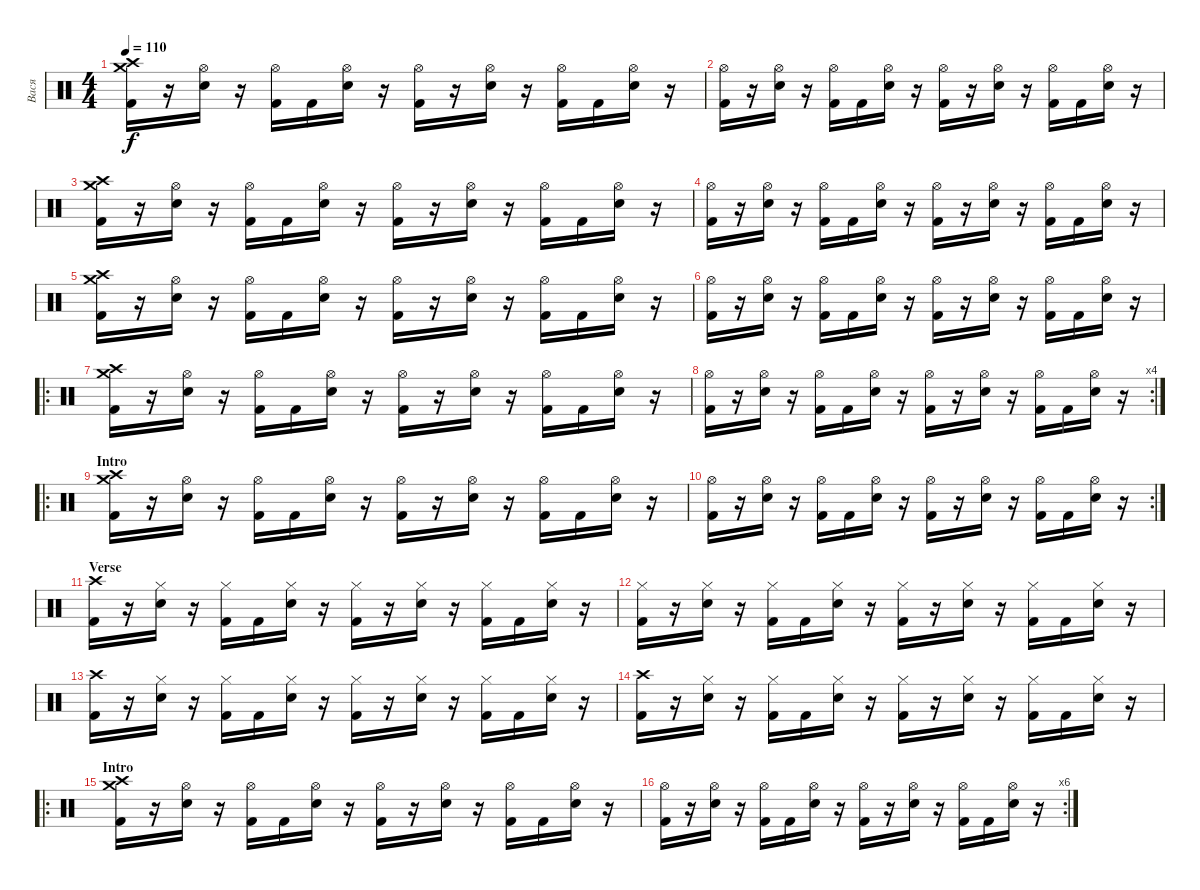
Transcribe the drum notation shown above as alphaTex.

\track ("Вася" "Вася") {instrument percussion}
\staff {score}
\articulation defaults
\ts (4 4)
\tempo 110
\clef neutral
\ks c
("Crash medium (hit)" "Crash high (hit)" "Kick (hit) 2").16{dy f} r.16 ("Hi-Hat (open)" "Electric Snare (hit)").16 r.16 ("Hi-Hat (open)" "Kick (hit) 2").16 "Kick (hit) 2".16 ("Hi-Hat (open)" "Electric Snare (hit)").16 r.16 ("Hi-Hat (open)" "Kick (hit) 2").16 r.16 ("Hi-Hat (open)" "Electric Snare (hit)").16 r.16 ("Hi-Hat (open)" "Kick (hit) 2").16 "Kick (hit) 2".16 ("Hi-Hat (open)" "Electric Snare (hit)").16 r.16 |
("Hi-Hat (open)" "Kick (hit) 2").16 r.16 ("Hi-Hat (open)" "Electric Snare (hit)").16 r.16 ("Hi-Hat (open)" "Kick (hit) 2").16 "Kick (hit) 2".16 ("Hi-Hat (open)" "Electric Snare (hit)").16 r.16 ("Hi-Hat (open)" "Kick (hit) 2").16 r.16 ("Hi-Hat (open)" "Electric Snare (hit)").16 r.16 ("Hi-Hat (open)" "Kick (hit) 2").16 "Kick (hit) 2".16 ("Hi-Hat (open)" "Electric Snare (hit)").16 r.16 |
("Crash medium (hit)" "Crash high (hit)" "Kick (hit) 2").16 r.16 ("Hi-Hat (open)" "Electric Snare (hit)").16 r.16 ("Hi-Hat (open)" "Kick (hit) 2").16 "Kick (hit) 2".16 ("Hi-Hat (open)" "Electric Snare (hit)").16 r.16 ("Hi-Hat (open)" "Kick (hit) 2").16 r.16 ("Hi-Hat (open)" "Electric Snare (hit)").16 r.16 ("Hi-Hat (open)" "Kick (hit) 2").16 "Kick (hit) 2".16 ("Hi-Hat (open)" "Electric Snare (hit)").16 r.16 |
("Hi-Hat (open)" "Kick (hit) 2").16 r.16 ("Hi-Hat (open)" "Electric Snare (hit)").16 r.16 ("Hi-Hat (open)" "Kick (hit) 2").16 "Kick (hit) 2".16 ("Hi-Hat (open)" "Electric Snare (hit)").16 r.16 ("Hi-Hat (open)" "Kick (hit) 2").16 r.16 ("Hi-Hat (open)" "Electric Snare (hit)").16 r.16 ("Hi-Hat (open)" "Kick (hit) 2").16 "Kick (hit) 2".16 ("Hi-Hat (open)" "Electric Snare (hit)").16 r.16 |
("Crash medium (hit)" "Crash high (hit)" "Kick (hit) 2").16 r.16 ("Hi-Hat (open)" "Electric Snare (hit)").16 r.16 ("Hi-Hat (open)" "Kick (hit) 2").16 "Kick (hit) 2".16 ("Hi-Hat (open)" "Electric Snare (hit)").16 r.16 ("Hi-Hat (open)" "Kick (hit) 2").16 r.16 ("Hi-Hat (open)" "Electric Snare (hit)").16 r.16 ("Hi-Hat (open)" "Kick (hit) 2").16 "Kick (hit) 2".16 ("Hi-Hat (open)" "Electric Snare (hit)").16 r.16 |
("Hi-Hat (open)" "Kick (hit) 2").16 r.16 ("Hi-Hat (open)" "Electric Snare (hit)").16 r.16 ("Hi-Hat (open)" "Kick (hit) 2").16 "Kick (hit) 2".16 ("Hi-Hat (open)" "Electric Snare (hit)").16 r.16 ("Hi-Hat (open)" "Kick (hit) 2").16 r.16 ("Hi-Hat (open)" "Electric Snare (hit)").16 r.16 ("Hi-Hat (open)" "Kick (hit) 2").16 "Kick (hit) 2".16 ("Hi-Hat (open)" "Electric Snare (hit)").16 r.16 |
\ro
("Crash medium (hit)" "Crash high (hit)" "Kick (hit) 2").16 r.16 ("Hi-Hat (open)" "Electric Snare (hit)").16 r.16 ("Hi-Hat (open)" "Kick (hit) 2").16 "Kick (hit) 2".16 ("Hi-Hat (open)" "Electric Snare (hit)").16 r.16 ("Hi-Hat (open)" "Kick (hit) 2").16 r.16 ("Hi-Hat (open)" "Electric Snare (hit)").16 r.16 ("Hi-Hat (open)" "Kick (hit) 2").16 "Kick (hit) 2".16 ("Hi-Hat (open)" "Electric Snare (hit)").16 r.16 |
\rc 4
("Hi-Hat (open)" "Kick (hit) 2").16 r.16 ("Hi-Hat (open)" "Electric Snare (hit)").16 r.16 ("Hi-Hat (open)" "Kick (hit) 2").16 "Kick (hit) 2".16 ("Hi-Hat (open)" "Electric Snare (hit)").16 r.16 ("Hi-Hat (open)" "Kick (hit) 2").16 r.16 ("Hi-Hat (open)" "Electric Snare (hit)").16 r.16 ("Hi-Hat (open)" "Kick (hit) 2").16 "Kick (hit) 2".16 ("Hi-Hat (open)" "Electric Snare (hit)").16 r.16 |
\ro
\section ("" "Intro")
("Crash medium (hit)" "Crash high (hit)" "Kick (hit) 2").16 r.16 ("Hi-Hat (open)" "Electric Snare (hit)").16 r.16 ("Hi-Hat (open)" "Kick (hit) 2").16 "Kick (hit) 2".16 ("Hi-Hat (open)" "Electric Snare (hit)").16 r.16 ("Hi-Hat (open)" "Kick (hit) 2").16 r.16 ("Hi-Hat (open)" "Electric Snare (hit)").16 r.16 ("Hi-Hat (open)" "Kick (hit) 2").16 "Kick (hit) 2".16 ("Hi-Hat (open)" "Electric Snare (hit)").16 r.16 |
\rc 2
("Hi-Hat (open)" "Kick (hit) 2").16 r.16 ("Hi-Hat (open)" "Electric Snare (hit)").16 r.16 ("Hi-Hat (open)" "Kick (hit) 2").16 "Kick (hit) 2".16 ("Hi-Hat (open)" "Electric Snare (hit)").16 r.16 ("Hi-Hat (open)" "Kick (hit) 2").16 r.16 ("Hi-Hat (open)" "Electric Snare (hit)").16 r.16 ("Hi-Hat (open)" "Kick (hit) 2").16 "Kick (hit) 2".16 ("Hi-Hat (open)" "Electric Snare (hit)").16 r.16 |
\section ("" "Verse")
("Crash high (hit)" "Kick (hit) 2").16 r.16 ("Hi-Hat (closed)" "Electric Snare (hit)").16 r.16 ("Hi-Hat (closed)" "Kick (hit) 2").16 "Kick (hit) 2".16 ("Hi-Hat (closed)" "Electric Snare (hit)").16 r.16 ("Hi-Hat (closed)" "Kick (hit) 2").16 r.16 ("Hi-Hat (closed)" "Electric Snare (hit)").16 r.16 ("Hi-Hat (closed)" "Kick (hit) 2").16 "Kick (hit) 2".16 ("Hi-Hat (closed)" "Electric Snare (hit)").16 r.16 |
("Hi-Hat (closed)" "Kick (hit) 2").16 r.16 ("Hi-Hat (closed)" "Electric Snare (hit)").16 r.16 ("Hi-Hat (closed)" "Kick (hit) 2").16 "Kick (hit) 2".16 ("Hi-Hat (closed)" "Electric Snare (hit)").16 r.16 ("Hi-Hat (closed)" "Kick (hit) 2").16 r.16 ("Hi-Hat (closed)" "Electric Snare (hit)").16 r.16 ("Hi-Hat (closed)" "Kick (hit) 2").16 "Kick (hit) 2".16 ("Hi-Hat (closed)" "Electric Snare (hit)").16 r.16 |
("Crash high (hit)" "Kick (hit) 2").16 r.16 ("Hi-Hat (closed)" "Electric Snare (hit)").16 r.16 ("Hi-Hat (closed)" "Kick (hit) 2").16 "Kick (hit) 2".16 ("Hi-Hat (closed)" "Electric Snare (hit)").16 r.16 ("Hi-Hat (closed)" "Kick (hit) 2").16 r.16 ("Hi-Hat (closed)" "Electric Snare (hit)").16 r.16 ("Hi-Hat (closed)" "Kick (hit) 2").16 "Kick (hit) 2".16 ("Hi-Hat (closed)" "Electric Snare (hit)").16 r.16 |
("Crash high (hit)" "Kick (hit) 2").16 r.16 ("Hi-Hat (closed)" "Electric Snare (hit)").16 r.16 ("Hi-Hat (closed)" "Kick (hit) 2").16 "Kick (hit) 2".16 ("Hi-Hat (closed)" "Electric Snare (hit)").16 r.16 ("Hi-Hat (closed)" "Kick (hit) 2").16 r.16 ("Hi-Hat (closed)" "Electric Snare (hit)").16 r.16 ("Hi-Hat (closed)" "Kick (hit) 2").16 "Kick (hit) 2".16 ("Hi-Hat (closed)" "Electric Snare (hit)").16 r.16 |
\ro
\section ("" "Intro")
("Crash medium (hit)" "Crash high (hit)" "Kick (hit) 2").16 r.16 ("Hi-Hat (open)" "Electric Snare (hit)").16 r.16 ("Hi-Hat (open)" "Kick (hit) 2").16 "Kick (hit) 2".16 ("Hi-Hat (open)" "Electric Snare (hit)").16 r.16 ("Hi-Hat (open)" "Kick (hit) 2").16 r.16 ("Hi-Hat (open)" "Electric Snare (hit)").16 r.16 ("Hi-Hat (open)" "Kick (hit) 2").16 "Kick (hit) 2".16 ("Hi-Hat (open)" "Electric Snare (hit)").16 r.16 |
\rc 6
("Hi-Hat (open)" "Kick (hit) 2").16 r.16 ("Hi-Hat (open)" "Electric Snare (hit)").16 r.16 ("Hi-Hat (open)" "Kick (hit) 2").16 "Kick (hit) 2".16 ("Hi-Hat (open)" "Electric Snare (hit)").16 r.16 ("Hi-Hat (open)" "Kick (hit) 2").16 r.16 ("Hi-Hat (open)" "Electric Snare (hit)").16 r.16 ("Hi-Hat (open)" "Kick (hit) 2").16 "Kick (hit) 2".16 ("Hi-Hat (open)" "Electric Snare (hit)").16 r.16
